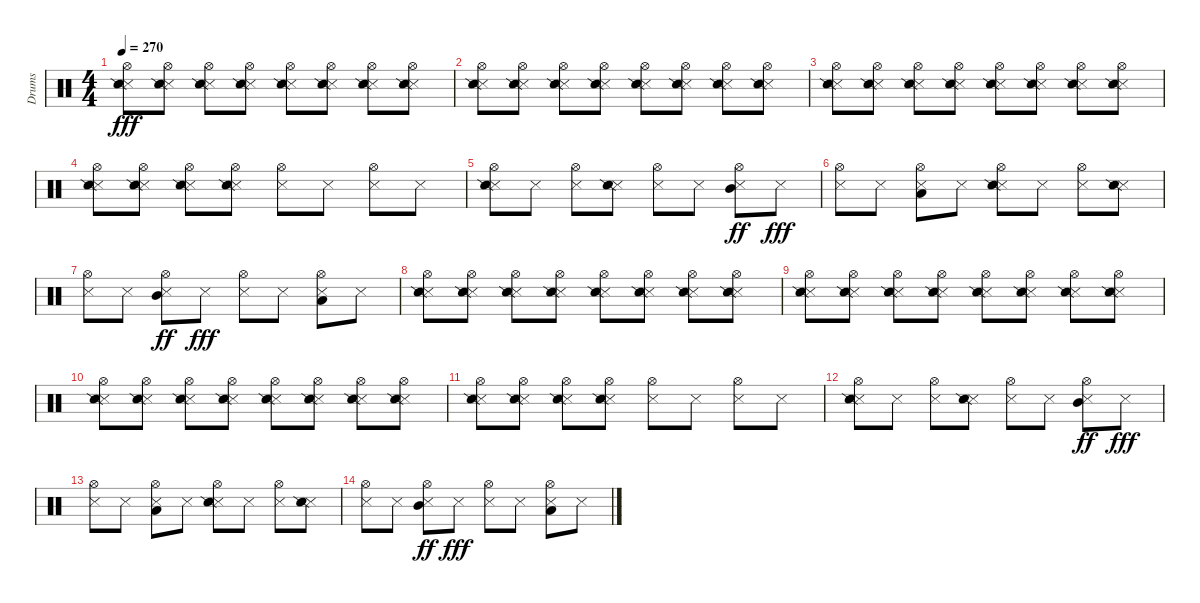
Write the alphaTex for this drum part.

\track ("Drums" "Drums") {instrument percussion}
\staff {score}
\articulation defaults
\ts (4 4)
\tempo 270
\clef neutral
\ks c
("Metronome (hit)" "Hi-Hat (open)" "Snare (side stick) 2").8{dy fff} ("Metronome (hit)" "Hi-Hat (open)" "Snare (side stick) 2").8 ("Metronome (hit)" "Hi-Hat (open)" "Snare (side stick) 2").8 ("Metronome (hit)" "Hi-Hat (open)" "Snare (side stick) 2").8 ("Metronome (hit)" "Hi-Hat (open)" "Snare (side stick) 2").8 ("Metronome (hit)" "Hi-Hat (open)" "Snare (side stick) 2").8 ("Metronome (hit)" "Hi-Hat (open)" "Snare (side stick) 2").8 ("Metronome (hit)" "Hi-Hat (open)" "Snare (side stick) 2").8 |
("Metronome (hit)" "Hi-Hat (open)" "Snare (side stick) 2").8 ("Metronome (hit)" "Hi-Hat (open)" "Snare (side stick) 2").8 ("Metronome (hit)" "Hi-Hat (open)" "Snare (side stick) 2").8 ("Metronome (hit)" "Hi-Hat (open)" "Snare (side stick) 2").8 ("Metronome (hit)" "Hi-Hat (open)" "Snare (side stick) 2").8 ("Metronome (hit)" "Hi-Hat (open)" "Snare (side stick) 2").8 ("Metronome (hit)" "Hi-Hat (open)" "Snare (side stick) 2").8 ("Metronome (hit)" "Hi-Hat (open)" "Snare (side stick) 2").8 |
("Metronome (hit)" "Hi-Hat (open)" "Snare (side stick) 2").8 ("Metronome (hit)" "Hi-Hat (open)" "Snare (side stick) 2").8 ("Metronome (hit)" "Hi-Hat (open)" "Snare (side stick) 2").8 ("Metronome (hit)" "Hi-Hat (open)" "Snare (side stick) 2").8 ("Metronome (hit)" "Hi-Hat (open)" "Snare (side stick) 2").8 ("Metronome (hit)" "Hi-Hat (open)" "Snare (side stick) 2").8 ("Metronome (hit)" "Hi-Hat (open)" "Snare (side stick) 2").8 ("Metronome (hit)" "Hi-Hat (open)" "Snare (side stick) 2").8 |
("Metronome (hit)" "Hi-Hat (open)" "Snare (side stick) 2").8 ("Metronome (hit)" "Hi-Hat (open)" "Snare (side stick) 2").8 ("Metronome (hit)" "Hi-Hat (open)" "Snare (side stick) 2").8 ("Metronome (hit)" "Hi-Hat (open)" "Snare (side stick) 2").8 ("Metronome (hit)" "Hi-Hat (open)").8 "Metronome (hit)".8 ("Metronome (hit)" "Hi-Hat (open)").8 "Metronome (hit)".8 |
("Metronome (hit)" "Hi-Hat (open)" "Snare (side stick) 2").8 "Metronome (hit)".8 ("Metronome (hit)" "Hi-Hat (open)").8 ("Metronome (hit)" "Snare (side stick) 2").8 ("Metronome (hit)" "Hi-Hat (open)").8 "Metronome (hit)".8 ("Metronome (hit)" "Hi-Hat (open)" "Mid Tom (hit)").8{dy ff} "Metronome (hit)".8{dy fff} |
("Metronome (hit)" "Hi-Hat (open)").8 "Metronome (hit)".8 ("Metronome (hit)" "Hi-Hat (open)" "Low Tom (hit)").8 "Metronome (hit)".8 ("Metronome (hit)" "Hi-Hat (open)" "Snare (side stick) 2").8 "Metronome (hit)".8 ("Metronome (hit)" "Hi-Hat (open)").8 ("Metronome (hit)" "Snare (side stick) 2").8 |
("Metronome (hit)" "Hi-Hat (open)").8 "Metronome (hit)".8 ("Metronome (hit)" "Hi-Hat (open)" "Mid Tom (hit)").8{dy ff} "Metronome (hit)".8{dy fff} ("Metronome (hit)" "Hi-Hat (open)").8 "Metronome (hit)".8 ("Metronome (hit)" "Hi-Hat (open)" "Low Tom (hit)").8 "Metronome (hit)".8 |
("Metronome (hit)" "Hi-Hat (open)" "Snare (side stick) 2").8 ("Metronome (hit)" "Hi-Hat (open)" "Snare (side stick) 2").8 ("Metronome (hit)" "Hi-Hat (open)" "Snare (side stick) 2").8 ("Metronome (hit)" "Hi-Hat (open)" "Snare (side stick) 2").8 ("Metronome (hit)" "Hi-Hat (open)" "Snare (side stick) 2").8 ("Metronome (hit)" "Hi-Hat (open)" "Snare (side stick) 2").8 ("Metronome (hit)" "Hi-Hat (open)" "Snare (side stick) 2").8 ("Metronome (hit)" "Hi-Hat (open)" "Snare (side stick) 2").8 |
("Metronome (hit)" "Hi-Hat (open)" "Snare (side stick) 2").8 ("Metronome (hit)" "Hi-Hat (open)" "Snare (side stick) 2").8 ("Metronome (hit)" "Hi-Hat (open)" "Snare (side stick) 2").8 ("Metronome (hit)" "Hi-Hat (open)" "Snare (side stick) 2").8 ("Metronome (hit)" "Hi-Hat (open)" "Snare (side stick) 2").8 ("Metronome (hit)" "Hi-Hat (open)" "Snare (side stick) 2").8 ("Metronome (hit)" "Hi-Hat (open)" "Snare (side stick) 2").8 ("Metronome (hit)" "Hi-Hat (open)" "Snare (side stick) 2").8 |
("Metronome (hit)" "Hi-Hat (open)" "Snare (side stick) 2").8 ("Metronome (hit)" "Hi-Hat (open)" "Snare (side stick) 2").8 ("Metronome (hit)" "Hi-Hat (open)" "Snare (side stick) 2").8 ("Metronome (hit)" "Hi-Hat (open)" "Snare (side stick) 2").8 ("Metronome (hit)" "Hi-Hat (open)" "Snare (side stick) 2").8 ("Metronome (hit)" "Hi-Hat (open)" "Snare (side stick) 2").8 ("Metronome (hit)" "Hi-Hat (open)" "Snare (side stick) 2").8 ("Metronome (hit)" "Hi-Hat (open)" "Snare (side stick) 2").8 |
("Metronome (hit)" "Hi-Hat (open)" "Snare (side stick) 2").8 ("Metronome (hit)" "Hi-Hat (open)" "Snare (side stick) 2").8 ("Metronome (hit)" "Hi-Hat (open)" "Snare (side stick) 2").8 ("Metronome (hit)" "Hi-Hat (open)" "Snare (side stick) 2").8 ("Metronome (hit)" "Hi-Hat (open)").8 "Metronome (hit)".8 ("Metronome (hit)" "Hi-Hat (open)").8 "Metronome (hit)".8 |
("Metronome (hit)" "Hi-Hat (open)" "Snare (side stick) 2").8 "Metronome (hit)".8 ("Metronome (hit)" "Hi-Hat (open)").8 ("Metronome (hit)" "Snare (side stick) 2").8 ("Metronome (hit)" "Hi-Hat (open)").8 "Metronome (hit)".8 ("Metronome (hit)" "Hi-Hat (open)" "Mid Tom (hit)").8{dy ff} "Metronome (hit)".8{dy fff} |
("Metronome (hit)" "Hi-Hat (open)").8 "Metronome (hit)".8 ("Metronome (hit)" "Hi-Hat (open)" "Low Tom (hit)").8 "Metronome (hit)".8 ("Metronome (hit)" "Hi-Hat (open)" "Snare (side stick) 2").8 "Metronome (hit)".8 ("Metronome (hit)" "Hi-Hat (open)").8 ("Metronome (hit)" "Snare (side stick) 2").8 |
("Metronome (hit)" "Hi-Hat (open)").8 "Metronome (hit)".8 ("Metronome (hit)" "Hi-Hat (open)" "Mid Tom (hit)").8{dy ff} "Metronome (hit)".8{dy fff} ("Metronome (hit)" "Hi-Hat (open)").8 "Metronome (hit)".8 ("Metronome (hit)" "Hi-Hat (open)" "Low Tom (hit)").8 "Metronome (hit)".8
